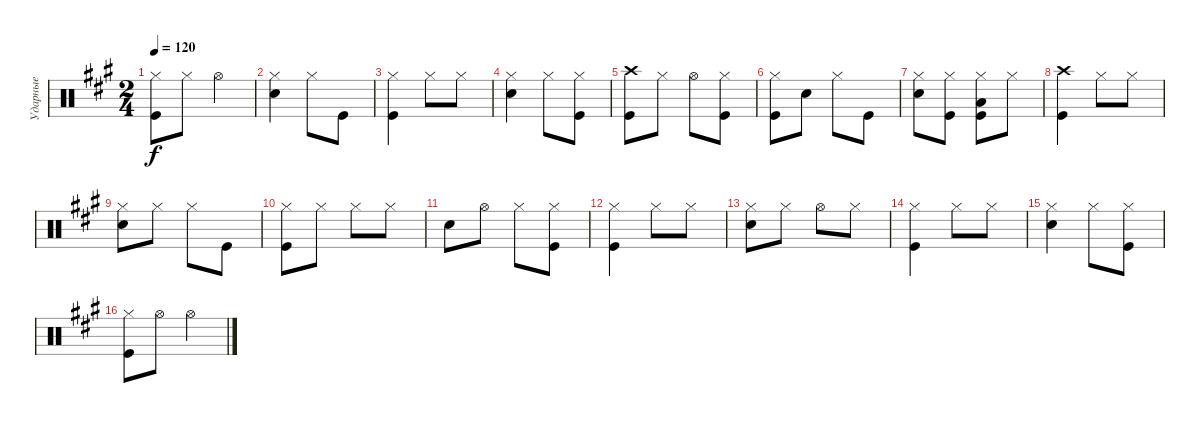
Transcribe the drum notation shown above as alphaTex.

\track ("Ударные" "Ударные") {instrument percussion}
\staff {score}
\articulation defaults
\ts (2 4)
\tempo 120
\clef neutral
\ks f#minor
("Kick (hit)" "Hi-Hat (closed)").8{dy f} "Hi-Hat (closed)".8 "Hi-Hat (open)".4 |
("Snare (hit) 2" "Hi-Hat (closed)").4 "Hi-Hat (closed)".8 "Kick (hit)".8 |
("Kick (hit)" "Hi-Hat (closed)").4 "Hi-Hat (closed)".8 "Hi-Hat (closed)".8 |
("Snare (hit) 2" "Hi-Hat (closed)").4 "Hi-Hat (closed)".8 ("Hi-Hat (closed)" "Kick (hit)").8 |
("Kick (hit)" "Crash high (hit)").8 "Hi-Hat (closed)".8 "Hi-Hat (open)".8 ("Hi-Hat (closed)" "Kick (hit)").8 |
("Kick (hit)" "Hi-Hat (closed)").8 "Snare (hit) 2".8 "Hi-Hat (closed)".8 "Kick (hit)".8 |
("Hi-Hat (closed)" "Snare (hit) 2").8 ("Hi-Hat (closed)" "Kick (hit)").8 ("Hi-Hat (closed)" "Low Tom (hit)" "Kick (hit)").8 "Hi-Hat (closed)".8 |
("Kick (hit)" "Crash high (hit)").4 "Hi-Hat (closed)".8 "Hi-Hat (closed)".8 |
("Snare (hit) 2" "Hi-Hat (closed)").8 "Hi-Hat (closed)".8 "Hi-Hat (closed)".8 "Kick (hit)".8 |
("Hi-Hat (closed)" "Kick (hit)").8 "Hi-Hat (closed)".8 "Hi-Hat (closed)".8 "Hi-Hat (closed)".8 |
"Snare (hit) 2".8 "Hi-Hat (open)".8 "Hi-Hat (closed)".8 ("Hi-Hat (closed)" "Kick (hit)").8 |
("Kick (hit)" "Hi-Hat (closed)").4 "Hi-Hat (closed)".8 "Hi-Hat (closed)".8 |
("Hi-Hat (closed)" "Snare (hit) 2").8 "Hi-Hat (closed)".8 "Hi-Hat (open)".8 "Hi-Hat (closed)".8 |
("Kick (hit)" "Hi-Hat (closed)").4 "Hi-Hat (closed)".8 "Hi-Hat (closed)".8 |
("Snare (hit) 2" "Hi-Hat (closed)").4 "Hi-Hat (closed)".8 ("Hi-Hat (closed)" "Kick (hit)").8 |
("Kick (hit)" "Hi-Hat (closed)").8 "Hi-Hat (open)".8 "Hi-Hat (open)".4
